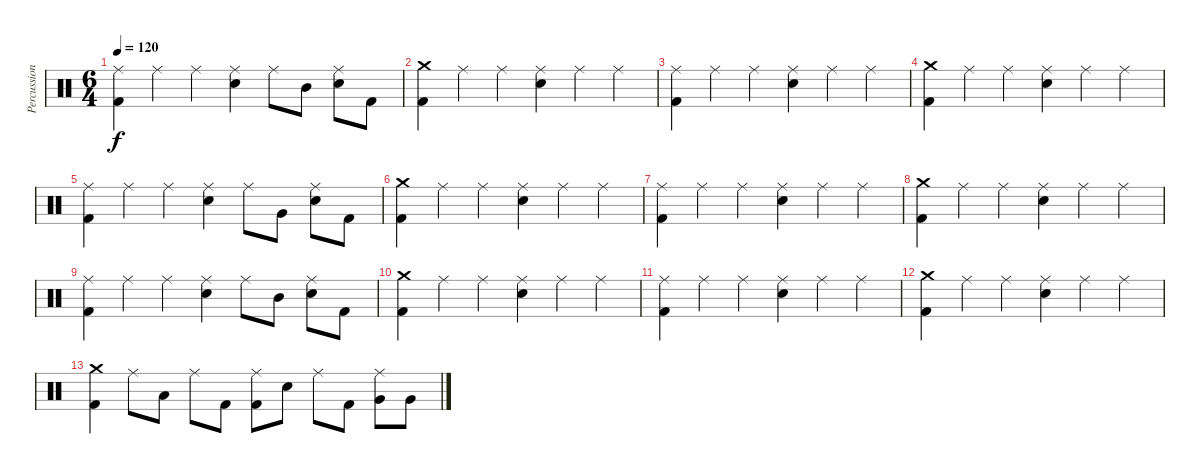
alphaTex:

\track ("Percussion" "Percussion") {instrument percussion}
\staff {score}
\articulation defaults
\ts (6 4)
\tempo 120
\clef neutral
\ks c
("Ride (middle)" "Kick (hit) 2").4{dy f} "Ride (middle)".4 "Ride (middle)".4 ("Ride (middle)" "Snare (hit) 2").4 "Ride (middle)".8 "Mid Tom (hit)".8 ("Ride (middle)" "Snare (hit) 2").8 "Kick (hit) 2".8 |
("Crash medium (hit)" "Kick (hit) 2").4 "Ride (middle)".4 "Ride (middle)".4 ("Ride (middle)" "Snare (hit) 2").4 "Ride (middle)".4 "Ride (middle)".4 |
("Ride (middle)" "Kick (hit) 2").4 "Ride (middle)".4 "Ride (middle)".4{volume 7} ("Ride (middle)" "Snare (hit) 2").4 "Ride (middle)".4 "Ride (middle)".4 |
("Crash medium (hit)" "Kick (hit) 2").4 "Ride (middle)".4 "Ride (middle)".4 ("Ride (middle)" "Snare (hit) 2").4 "Ride (middle)".4 "Ride (middle)".4 |
("Ride (middle)" "Kick (hit) 2").4 "Ride (middle)".4 "Ride (middle)".4 ("Ride (middle)" "Snare (hit) 2").4 "Ride (middle)".8 "Very Low Tom (hit)".8 ("Ride (middle)" "Snare (hit) 2").8 "Kick (hit) 2".8 |
("Crash medium (hit)" "Kick (hit) 2").4{volume 1} "Ride (middle)".4 "Ride (middle)".4 ("Ride (middle)" "Snare (hit) 2").4 "Ride (middle)".4 "Ride (middle)".4 |
("Ride (middle)" "Kick (hit) 2").4 "Ride (middle)".4 "Ride (middle)".4 ("Ride (middle)" "Snare (hit) 2").4 "Ride (middle)".4 "Ride (middle)".4 |
("Crash medium (hit)" "Kick (hit) 2").4 "Ride (middle)".4 "Ride (middle)".4 ("Ride (middle)" "Snare (hit) 2").4 "Ride (middle)".4{volume 1} "Ride (middle)".4 |
("Ride (middle)" "Kick (hit) 2").4 "Ride (middle)".4 "Ride (middle)".4 ("Ride (middle)" "Snare (hit) 2").4 "Ride (middle)".8 "Mid Tom (hit)".8 ("Ride (middle)" "Snare (hit) 2").8 "Kick (hit) 2".8 |
("Crash medium (hit)" "Kick (hit) 2").4 "Ride (middle)".4 "Ride (middle)".4 ("Ride (middle)" "Snare (hit) 2").4 "Ride (middle)".4 "Ride (middle)".4 |
("Ride (middle)" "Kick (hit) 2").4 "Ride (middle)".4 "Ride (middle)".4{volume 0} ("Ride (middle)" "Snare (hit) 2").4 "Ride (middle)".4 "Ride (middle)".4 |
("Crash medium (hit)" "Kick (hit) 2").4 "Ride (middle)".4 "Ride (middle)".4 ("Ride (middle)" "Snare (hit) 2").4 "Ride (middle)".4 "Ride (middle)".4 |
("Crash medium (hit)" "Kick (hit) 2").4 "Ride (middle)".8 "Low Tom (hit)".8 "Ride (middle)".8 "Kick (hit) 2".8 ("Ride (middle)" "Kick (hit) 2").8 "Snare (hit) 2".8 "Ride (middle)".8 "Kick (hit) 2".8 ("Ride (middle)" "Very Low Tom (hit)").8 "Very Low Tom (hit)".8
